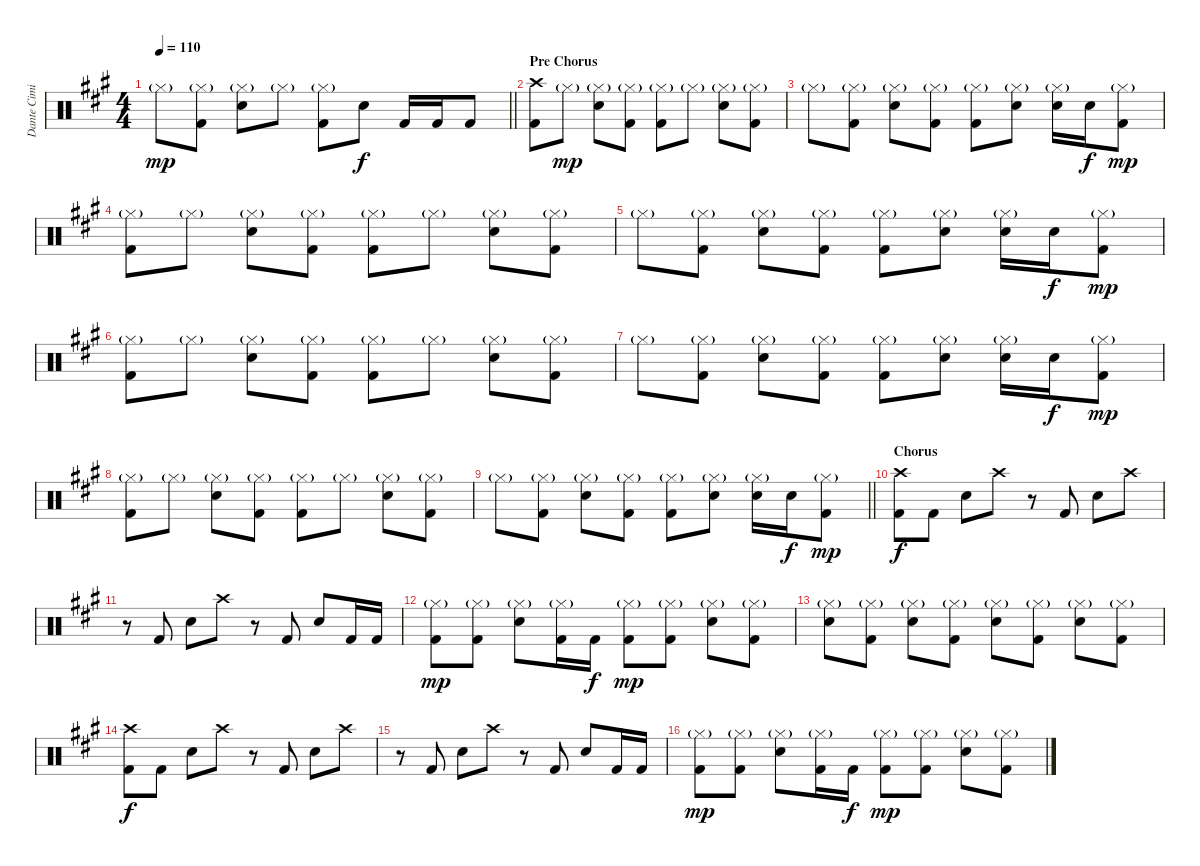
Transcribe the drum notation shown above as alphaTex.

\track ("Dante Cimino" "Dante Cimi") {instrument percussion}
\staff {score}
\articulation defaults
\ts (4 4)
\tempo 110
\clef neutral
\barLineRight lightlight
\ks a "Hi-Hat (closed)"{g}.8{dy mp}
("Hi-Hat (closed)"{g} "Kick (hit) 2").8 ("Hi-Hat (closed)"{g} "Electric Snare (hit)").8 "Hi-Hat (closed)"{g}.8 ("Hi-Hat (closed)"{g} "Kick (hit) 2").8 "Electric Snare (hit)".8{dy f} "Kick (hit) 2".16 "Kick (hit) 2".16 "Kick (hit) 2".8 |
\section ("" "Pre Chorus")
("Crash high (hit)" "Kick (hit) 2").8 "Hi-Hat (closed)"{g}.8{dy mp} ("Hi-Hat (closed)"{g} "Electric Snare (hit)").8 ("Hi-Hat (closed)"{g} "Kick (hit) 2").8 ("Hi-Hat (closed)"{g} "Kick (hit) 2").8 "Hi-Hat (closed)"{g}.8 ("Hi-Hat (closed)"{g} "Electric Snare (hit)").8 ("Hi-Hat (closed)"{g} "Kick (hit) 2").8 |
"Hi-Hat (closed)"{g}.8 ("Hi-Hat (closed)"{g} "Kick (hit) 2").8 ("Hi-Hat (closed)"{g} "Electric Snare (hit)").8 ("Hi-Hat (closed)"{g} "Kick (hit) 2").8 ("Hi-Hat (closed)"{g} "Kick (hit) 2").8 ("Hi-Hat (closed)"{g} "Electric Snare (hit)").8 ("Hi-Hat (closed)"{g} "Electric Snare (hit)").16 "Electric Snare (hit)".16{dy f} ("Hi-Hat (closed)"{g} "Kick (hit) 2").8{dy mp} |
("Hi-Hat (closed)"{g} "Kick (hit) 2").8 "Hi-Hat (closed)"{g}.8 ("Hi-Hat (closed)"{g} "Electric Snare (hit)").8 ("Hi-Hat (closed)"{g} "Kick (hit) 2").8 ("Hi-Hat (closed)"{g} "Kick (hit) 2").8 "Hi-Hat (closed)"{g}.8 ("Hi-Hat (closed)"{g} "Electric Snare (hit)").8 ("Hi-Hat (closed)"{g} "Kick (hit) 2").8 |
"Hi-Hat (closed)"{g}.8 ("Hi-Hat (closed)"{g} "Kick (hit) 2").8 ("Hi-Hat (closed)"{g} "Electric Snare (hit)").8 ("Hi-Hat (closed)"{g} "Kick (hit) 2").8 ("Hi-Hat (closed)"{g} "Kick (hit) 2").8 ("Hi-Hat (closed)"{g} "Electric Snare (hit)").8 ("Hi-Hat (closed)"{g} "Electric Snare (hit)").16 "Electric Snare (hit)".16{dy f} ("Hi-Hat (closed)"{g} "Kick (hit) 2").8{dy mp} |
("Hi-Hat (closed)"{g} "Kick (hit) 2").8 "Hi-Hat (closed)"{g}.8 ("Hi-Hat (closed)"{g} "Electric Snare (hit)").8 ("Hi-Hat (closed)"{g} "Kick (hit) 2").8 ("Hi-Hat (closed)"{g} "Kick (hit) 2").8 "Hi-Hat (closed)"{g}.8 ("Hi-Hat (closed)"{g} "Electric Snare (hit)").8 ("Hi-Hat (closed)"{g} "Kick (hit) 2").8 |
"Hi-Hat (closed)"{g}.8 ("Hi-Hat (closed)"{g} "Kick (hit) 2").8 ("Hi-Hat (closed)"{g} "Electric Snare (hit)").8 ("Hi-Hat (closed)"{g} "Kick (hit) 2").8 ("Hi-Hat (closed)"{g} "Kick (hit) 2").8 ("Hi-Hat (closed)"{g} "Electric Snare (hit)").8 ("Hi-Hat (closed)"{g} "Electric Snare (hit)").16 "Electric Snare (hit)".16{dy f} ("Hi-Hat (closed)"{g} "Kick (hit) 2").8{dy mp} |
("Hi-Hat (closed)"{g} "Kick (hit) 2").8 "Hi-Hat (closed)"{g}.8 ("Hi-Hat (closed)"{g} "Electric Snare (hit)").8 ("Hi-Hat (closed)"{g} "Kick (hit) 2").8 ("Hi-Hat (closed)"{g} "Kick (hit) 2").8 "Hi-Hat (closed)"{g}.8 ("Hi-Hat (closed)"{g} "Electric Snare (hit)").8 ("Hi-Hat (closed)"{g} "Kick (hit) 2").8 |
\barLineRight lightlight "Hi-Hat (closed)"{g}.8
("Hi-Hat (closed)"{g} "Kick (hit) 2").8 ("Hi-Hat (closed)"{g} "Electric Snare (hit)").8 ("Hi-Hat (closed)"{g} "Kick (hit) 2").8 ("Hi-Hat (closed)"{g} "Kick (hit) 2").8 ("Hi-Hat (closed)"{g} "Electric Snare (hit)").8 ("Hi-Hat (closed)"{g} "Electric Snare (hit)").16 "Electric Snare (hit)".16{dy f} ("Hi-Hat (closed)"{g} "Kick (hit) 2").8{dy mp} |
\section ("" "Chorus")
("Crash high (hit)" "Kick (hit) 2").8{dy f} "Kick (hit) 2".8 "Electric Snare (hit)".8 "Crash high (hit)".8 r.8 "Kick (hit) 2".8 "Electric Snare (hit)".8 "Crash high (hit)".8 |
r.8 "Kick (hit) 2".8 "Electric Snare (hit)".8 "Crash high (hit)".8 r.8 "Kick (hit) 2".8 "Electric Snare (hit)".8 "Kick (hit) 2".16 "Kick (hit) 2".16 |
("Hi-Hat (closed)"{g} "Kick (hit) 2").8{dy mp} ("Hi-Hat (closed)"{g} "Kick (hit) 2").8 ("Hi-Hat (closed)"{g} "Electric Snare (hit)").8 ("Hi-Hat (closed)"{g} "Kick (hit) 2").16 "Kick (hit) 2".16{dy f} ("Hi-Hat (closed)"{g} "Kick (hit) 2").8{dy mp} ("Hi-Hat (closed)"{g} "Kick (hit) 2").8 ("Hi-Hat (closed)"{g} "Electric Snare (hit)").8 ("Hi-Hat (closed)"{g} "Kick (hit) 2").8 |
("Hi-Hat (closed)"{g} "Electric Snare (hit)").8 ("Hi-Hat (closed)"{g} "Kick (hit) 2").8 ("Hi-Hat (closed)"{g} "Electric Snare (hit)").8 ("Hi-Hat (closed)"{g} "Kick (hit) 2").8 ("Hi-Hat (closed)"{g} "Electric Snare (hit)").8 ("Hi-Hat (closed)"{g} "Kick (hit) 2").8 ("Hi-Hat (closed)"{g} "Electric Snare (hit)").8 ("Hi-Hat (closed)"{g} "Kick (hit) 2").8 |
("Crash high (hit)" "Kick (hit) 2").8{dy f} "Kick (hit) 2".8 "Electric Snare (hit)".8 "Crash high (hit)".8 r.8 "Kick (hit) 2".8 "Electric Snare (hit)".8 "Crash high (hit)".8 |
r.8 "Kick (hit) 2".8 "Electric Snare (hit)".8 "Crash high (hit)".8 r.8 "Kick (hit) 2".8 "Electric Snare (hit)".8 "Kick (hit) 2".16 "Kick (hit) 2".16 |
("Hi-Hat (closed)"{g} "Kick (hit) 2").8{dy mp} ("Hi-Hat (closed)"{g} "Kick (hit) 2").8 ("Hi-Hat (closed)"{g} "Electric Snare (hit)").8 ("Hi-Hat (closed)"{g} "Kick (hit) 2").16 "Kick (hit) 2".16{dy f} ("Hi-Hat (closed)"{g} "Kick (hit) 2").8{dy mp} ("Hi-Hat (closed)"{g} "Kick (hit) 2").8 ("Hi-Hat (closed)"{g} "Electric Snare (hit)").8 ("Hi-Hat (closed)"{g} "Kick (hit) 2").8
